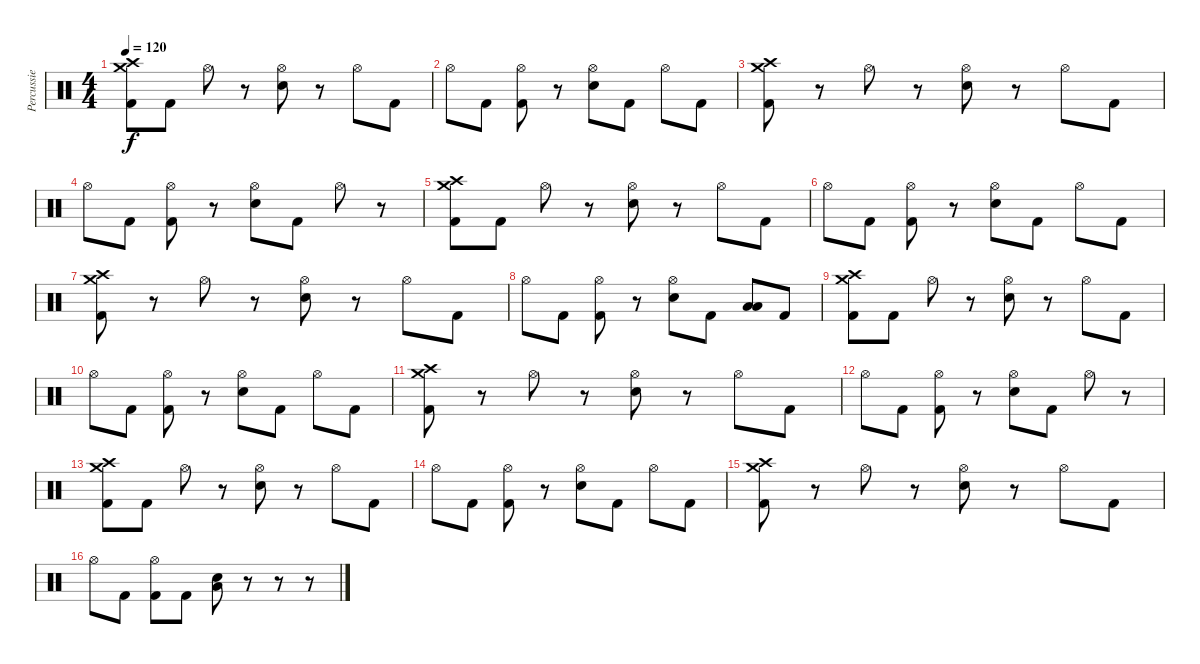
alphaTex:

\track ("Percussie" "Percussie") {instrument percussion}
\staff {score}
\articulation defaults
\ts (4 4)
\tempo 120
\clef neutral
\ks c
("Crash medium (hit)" "Crash high (hit)" "Kick (hit) 2").8{dy f} "Kick (hit) 2".8 "Hi-Hat (open)".8 r.8 ("Hi-Hat (open)" "Electric Snare (hit)").8 r.8 "Hi-Hat (open)".8 "Kick (hit) 2".8 |
"Hi-Hat (open)".8 "Kick (hit) 2".8 ("Hi-Hat (open)" "Kick (hit) 2").8 r.8 ("Hi-Hat (open)" "Electric Snare (hit)").8 "Kick (hit) 2".8 "Hi-Hat (open)".8 "Kick (hit) 2".8 |
("Crash medium (hit)" "Crash high (hit)" "Kick (hit) 2").8 r.8 "Hi-Hat (open)".8 r.8 ("Hi-Hat (open)" "Electric Snare (hit)").8 r.8 "Hi-Hat (open)".8 "Kick (hit) 2".8 |
"Hi-Hat (open)".8 "Kick (hit) 2".8 ("Hi-Hat (open)" "Kick (hit) 2").8 r.8 ("Hi-Hat (open)" "Electric Snare (hit)").8 "Kick (hit) 2".8 "Hi-Hat (open)".8 r.8 |
("Crash medium (hit)" "Crash high (hit)" "Kick (hit) 2").8 "Kick (hit) 2".8 "Hi-Hat (open)".8 r.8 ("Hi-Hat (open)" "Electric Snare (hit)").8 r.8 "Hi-Hat (open)".8 "Kick (hit) 2".8 |
"Hi-Hat (open)".8 "Kick (hit) 2".8 ("Hi-Hat (open)" "Kick (hit) 2").8 r.8 ("Hi-Hat (open)" "Electric Snare (hit)").8 "Kick (hit) 2".8 "Hi-Hat (open)".8 "Kick (hit) 2".8 |
("Crash medium (hit)" "Crash high (hit)" "Kick (hit) 2").8 r.8 "Hi-Hat (open)".8 r.8 ("Hi-Hat (open)" "Electric Snare (hit)").8 r.8 "Hi-Hat (open)".8 "Kick (hit) 2".8 |
"Hi-Hat (open)".8 "Kick (hit) 2".8 ("Hi-Hat (open)" "Kick (hit) 2").8 r.8 ("Hi-Hat (open)" "Electric Snare (hit)").8 "Kick (hit) 2".8 ("Low Tom (hit)" "Low Floor Tom (hit)").8 "Kick (hit) 2".8 |
("Crash medium (hit)" "Crash high (hit)" "Kick (hit) 2").8 "Kick (hit) 2".8 "Hi-Hat (open)".8 r.8 ("Hi-Hat (open)" "Electric Snare (hit)").8 r.8 "Hi-Hat (open)".8 "Kick (hit) 2".8 |
"Hi-Hat (open)".8 "Kick (hit) 2".8 ("Hi-Hat (open)" "Kick (hit) 2").8 r.8 ("Hi-Hat (open)" "Electric Snare (hit)").8 "Kick (hit) 2".8 "Hi-Hat (open)".8 "Kick (hit) 2".8 |
("Crash medium (hit)" "Crash high (hit)" "Kick (hit) 2").8 r.8 "Hi-Hat (open)".8 r.8 ("Hi-Hat (open)" "Electric Snare (hit)").8 r.8 "Hi-Hat (open)".8 "Kick (hit) 2".8 |
"Hi-Hat (open)".8 "Kick (hit) 2".8 ("Hi-Hat (open)" "Kick (hit) 2").8 r.8 ("Hi-Hat (open)" "Electric Snare (hit)").8 "Kick (hit) 2".8 "Hi-Hat (open)".8 r.8 |
("Crash medium (hit)" "Crash high (hit)" "Kick (hit) 2").8 "Kick (hit) 2".8 "Hi-Hat (open)".8 r.8 ("Hi-Hat (open)" "Electric Snare (hit)").8 r.8 "Hi-Hat (open)".8 "Kick (hit) 2".8 |
"Hi-Hat (open)".8 "Kick (hit) 2".8 ("Hi-Hat (open)" "Kick (hit) 2").8 r.8 ("Hi-Hat (open)" "Electric Snare (hit)").8 "Kick (hit) 2".8 "Hi-Hat (open)".8 "Kick (hit) 2".8 |
("Crash medium (hit)" "Crash high (hit)" "Kick (hit) 2").8 r.8 "Hi-Hat (open)".8 r.8 ("Hi-Hat (open)" "Electric Snare (hit)").8 r.8 "Hi-Hat (open)".8 "Kick (hit) 2".8 |
"Hi-Hat (open)".8 "Kick (hit) 2".8 ("Hi-Hat (open)" "Kick (hit) 2").8 "Kick (hit) 2".8 ("Low Floor Tom (hit)" "Electric Snare (hit)").8 r.8 r.8 r.8
